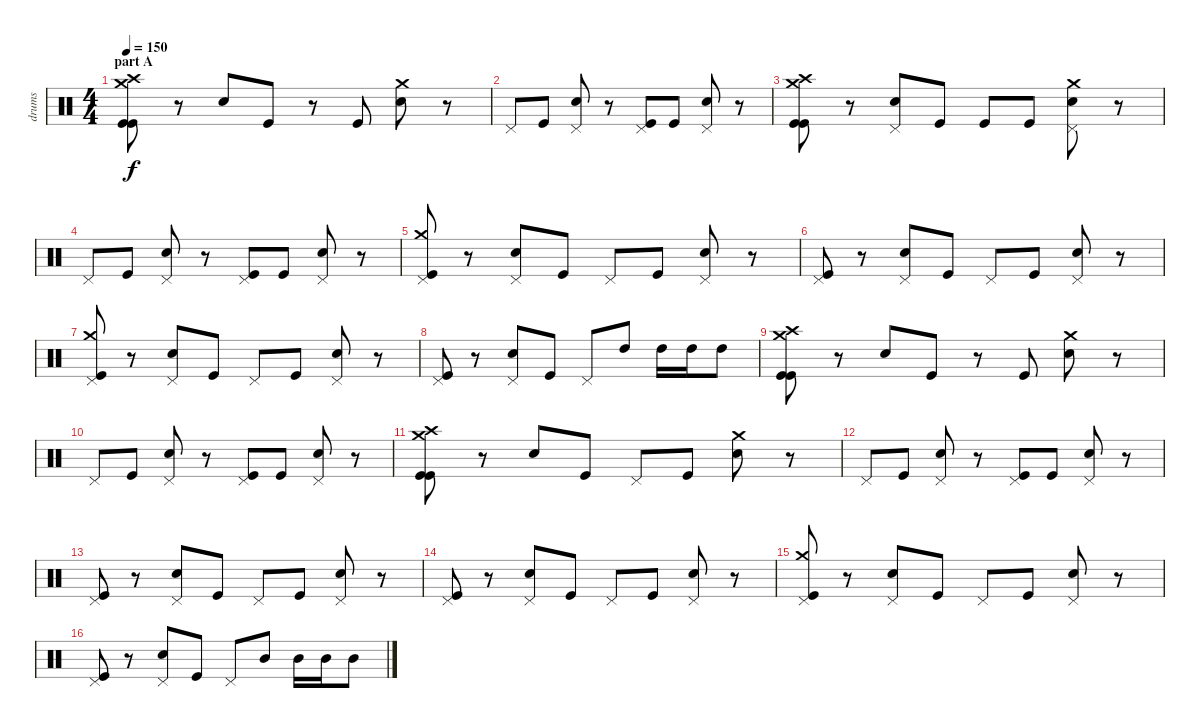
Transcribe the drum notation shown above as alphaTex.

\track ("drums" "drums") {instrument percussion}
\staff {score}
\articulation defaults
\ts (4 4)
\section ("" "part A")
\tempo 150
\clef neutral
\ks c
("Kick (hit)" "Kick (hit)" "Crash high (hit)" "Crash medium (hit)").8{dy f} r.8 "Snare (hit) 2".8 "Kick (hit)".8 r.8 "Kick (hit)".8 ("Snare (hit) 2" "Crash medium (hit)").8 r.8 |
"Pedal Hi-Hat (hit)".8 "Kick (hit)".8 ("Pedal Hi-Hat (hit)" "Snare (hit) 2").8 r.8 ("Pedal Hi-Hat (hit)" "Kick (hit)").8 "Kick (hit)".8 ("Pedal Hi-Hat (hit)" "Snare (hit) 2").8 r.8 |
("Kick (hit)" "Kick (hit)" "Crash high (hit)" "Crash medium (hit)").8 r.8 ("Pedal Hi-Hat (hit)" "Snare (hit) 2").8 "Kick (hit)".8 "Kick (hit)".8 "Kick (hit)".8 ("Pedal Hi-Hat (hit)" "Snare (hit) 2" "Crash medium (hit)").8 r.8 |
"Pedal Hi-Hat (hit)".8 "Kick (hit)".8 ("Pedal Hi-Hat (hit)" "Snare (hit) 2").8 r.8 ("Pedal Hi-Hat (hit)" "Kick (hit)").8 "Kick (hit)".8 ("Pedal Hi-Hat (hit)" "Snare (hit) 2").8 r.8 |
("Pedal Hi-Hat (hit)" "Kick (hit)" "Crash medium (hit)").8 r.8 ("Pedal Hi-Hat (hit)" "Snare (hit) 2").8 "Kick (hit)".8 "Pedal Hi-Hat (hit)".8 "Kick (hit)".8 ("Pedal Hi-Hat (hit)" "Snare (hit) 2").8 r.8 |
("Pedal Hi-Hat (hit)" "Kick (hit)").8 r.8 ("Pedal Hi-Hat (hit)" "Snare (hit) 2").8 "Kick (hit)".8 "Pedal Hi-Hat (hit)".8 "Kick (hit)".8 ("Pedal Hi-Hat (hit)" "Snare (hit) 2").8 r.8 |
("Pedal Hi-Hat (hit)" "Kick (hit)" "Crash medium (hit)").8 r.8 ("Pedal Hi-Hat (hit)" "Snare (hit) 2").8 "Kick (hit)".8 "Pedal Hi-Hat (hit)".8 "Kick (hit)".8 ("Pedal Hi-Hat (hit)" "Snare (hit) 2").8 r.8 |
("Pedal Hi-Hat (hit)" "Kick (hit)").8 r.8 ("Pedal Hi-Hat (hit)" "Snare (hit) 2").8 "Kick (hit)".8 "Pedal Hi-Hat (hit)".8 "High Tom (hit)".8 "High Tom (hit)".16 "High Tom (hit)".16 "High Tom (hit)".8 |
("Kick (hit)" "Kick (hit)" "Crash high (hit)" "Crash medium (hit)").8 r.8 "Snare (hit) 2".8 "Kick (hit)".8 r.8 "Kick (hit)".8 ("Snare (hit) 2" "Crash medium (hit)").8 r.8 |
"Pedal Hi-Hat (hit)".8 "Kick (hit)".8 ("Pedal Hi-Hat (hit)" "Snare (hit) 2").8 r.8 ("Pedal Hi-Hat (hit)" "Kick (hit)").8 "Kick (hit)".8 ("Pedal Hi-Hat (hit)" "Snare (hit) 2").8 r.8 |
("Kick (hit)" "Kick (hit)" "Crash high (hit)" "Crash medium (hit)").8 r.8 "Snare (hit) 2".8 "Kick (hit)".8 "Pedal Hi-Hat (hit)".8 "Kick (hit)".8 ("Snare (hit) 2" "Crash medium (hit)").8 r.8 |
"Pedal Hi-Hat (hit)".8 "Kick (hit)".8 ("Pedal Hi-Hat (hit)" "Snare (hit) 2").8 r.8 ("Pedal Hi-Hat (hit)" "Kick (hit)").8 "Kick (hit)".8 ("Pedal Hi-Hat (hit)" "Snare (hit) 2").8 r.8 |
("Pedal Hi-Hat (hit)" "Kick (hit)").8 r.8 ("Pedal Hi-Hat (hit)" "Snare (hit) 2").8 "Kick (hit)".8 "Pedal Hi-Hat (hit)".8 "Kick (hit)".8 ("Pedal Hi-Hat (hit)" "Snare (hit) 2").8 r.8 |
("Pedal Hi-Hat (hit)" "Kick (hit)").8 r.8 ("Pedal Hi-Hat (hit)" "Snare (hit) 2").8 "Kick (hit)".8 "Pedal Hi-Hat (hit)".8 "Kick (hit)".8 ("Pedal Hi-Hat (hit)" "Snare (hit) 2").8 r.8 |
("Pedal Hi-Hat (hit)" "Kick (hit)" "Crash medium (hit)").8 r.8 ("Pedal Hi-Hat (hit)" "Snare (hit) 2").8 "Kick (hit)".8 "Pedal Hi-Hat (hit)".8 "Kick (hit)".8 ("Pedal Hi-Hat (hit)" "Snare (hit) 2").8 r.8 |
("Pedal Hi-Hat (hit)" "Kick (hit)").8 r.8 ("Pedal Hi-Hat (hit)" "Snare (hit) 2").8 "Kick (hit)".8 "Pedal Hi-Hat (hit)".8 "Mid Tom (hit)".8 "Mid Tom (hit)".16 "Mid Tom (hit)".16 "Mid Tom (hit)".8
